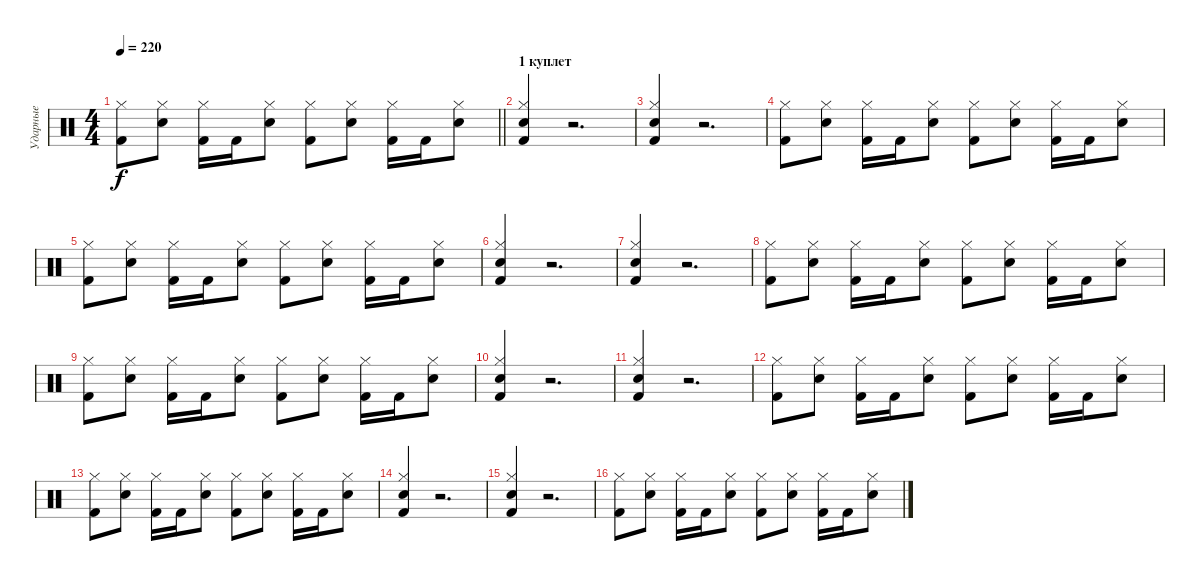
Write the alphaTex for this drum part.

\track ("Ударные" "Ударные") {instrument percussion}
\staff {score}
\articulation defaults
\ts (4 4)
\tempo 220
\clef neutral
\barLineRight lightlight
\ks c
("Kick (hit) 2" "Hi-Hat (closed)").8{dy f} ("Snare (hit) 2" "Hi-Hat (closed)").8 ("Kick (hit) 2" "Hi-Hat (closed)").16 "Kick (hit) 2".16 ("Snare (hit) 2" "Hi-Hat (closed)").8 ("Kick (hit) 2" "Hi-Hat (closed)").8 ("Snare (hit) 2" "Hi-Hat (closed)").8 ("Kick (hit) 2" "Hi-Hat (closed)").16 "Kick (hit) 2".16 ("Snare (hit) 2" "Hi-Hat (closed)").8 |
\section ("" "1 куплет")
("Kick (hit) 2" "Snare (hit) 2" "Hi-Hat (closed)").4 r.2{d} |
("Kick (hit) 2" "Snare (hit) 2" "Hi-Hat (closed)").4 r.2{d} |
("Kick (hit) 2" "Hi-Hat (closed)").8 ("Snare (hit) 2" "Hi-Hat (closed)").8 ("Kick (hit) 2" "Hi-Hat (closed)").16 "Kick (hit) 2".16 ("Snare (hit) 2" "Hi-Hat (closed)").8 ("Kick (hit) 2" "Hi-Hat (closed)").8 ("Snare (hit) 2" "Hi-Hat (closed)").8 ("Kick (hit) 2" "Hi-Hat (closed)").16 "Kick (hit) 2".16 ("Snare (hit) 2" "Hi-Hat (closed)").8 |
("Kick (hit) 2" "Hi-Hat (closed)").8 ("Snare (hit) 2" "Hi-Hat (closed)").8 ("Kick (hit) 2" "Hi-Hat (closed)").16 "Kick (hit) 2".16 ("Snare (hit) 2" "Hi-Hat (closed)").8 ("Kick (hit) 2" "Hi-Hat (closed)").8 ("Snare (hit) 2" "Hi-Hat (closed)").8 ("Kick (hit) 2" "Hi-Hat (closed)").16 "Kick (hit) 2".16 ("Snare (hit) 2" "Hi-Hat (closed)").8 |
("Kick (hit) 2" "Snare (hit) 2" "Hi-Hat (closed)").4 r.2{d} |
("Kick (hit) 2" "Snare (hit) 2" "Hi-Hat (closed)").4 r.2{d} |
("Kick (hit) 2" "Hi-Hat (closed)").8 ("Snare (hit) 2" "Hi-Hat (closed)").8 ("Kick (hit) 2" "Hi-Hat (closed)").16 "Kick (hit) 2".16 ("Snare (hit) 2" "Hi-Hat (closed)").8 ("Kick (hit) 2" "Hi-Hat (closed)").8 ("Snare (hit) 2" "Hi-Hat (closed)").8 ("Kick (hit) 2" "Hi-Hat (closed)").16 "Kick (hit) 2".16 ("Snare (hit) 2" "Hi-Hat (closed)").8 |
("Kick (hit) 2" "Hi-Hat (closed)").8 ("Snare (hit) 2" "Hi-Hat (closed)").8 ("Kick (hit) 2" "Hi-Hat (closed)").16 "Kick (hit) 2".16 ("Snare (hit) 2" "Hi-Hat (closed)").8 ("Kick (hit) 2" "Hi-Hat (closed)").8 ("Snare (hit) 2" "Hi-Hat (closed)").8 ("Kick (hit) 2" "Hi-Hat (closed)").16 "Kick (hit) 2".16 ("Snare (hit) 2" "Hi-Hat (closed)").8 |
("Kick (hit) 2" "Snare (hit) 2" "Hi-Hat (closed)").4 r.2{d} |
("Kick (hit) 2" "Snare (hit) 2" "Hi-Hat (closed)").4 r.2{d} |
("Kick (hit) 2" "Hi-Hat (closed)").8 ("Snare (hit) 2" "Hi-Hat (closed)").8 ("Kick (hit) 2" "Hi-Hat (closed)").16 "Kick (hit) 2".16 ("Snare (hit) 2" "Hi-Hat (closed)").8 ("Kick (hit) 2" "Hi-Hat (closed)").8 ("Snare (hit) 2" "Hi-Hat (closed)").8 ("Kick (hit) 2" "Hi-Hat (closed)").16 "Kick (hit) 2".16 ("Snare (hit) 2" "Hi-Hat (closed)").8 |
("Kick (hit) 2" "Hi-Hat (closed)").8 ("Snare (hit) 2" "Hi-Hat (closed)").8 ("Kick (hit) 2" "Hi-Hat (closed)").16 "Kick (hit) 2".16 ("Snare (hit) 2" "Hi-Hat (closed)").8 ("Kick (hit) 2" "Hi-Hat (closed)").8 ("Snare (hit) 2" "Hi-Hat (closed)").8 ("Kick (hit) 2" "Hi-Hat (closed)").16 "Kick (hit) 2".16 ("Snare (hit) 2" "Hi-Hat (closed)").8 |
("Kick (hit) 2" "Snare (hit) 2" "Hi-Hat (closed)").4 r.2{d} |
("Kick (hit) 2" "Snare (hit) 2" "Hi-Hat (closed)").4 r.2{d} |
("Kick (hit) 2" "Hi-Hat (closed)").8 ("Snare (hit) 2" "Hi-Hat (closed)").8 ("Kick (hit) 2" "Hi-Hat (closed)").16 "Kick (hit) 2".16 ("Snare (hit) 2" "Hi-Hat (closed)").8 ("Kick (hit) 2" "Hi-Hat (closed)").8 ("Snare (hit) 2" "Hi-Hat (closed)").8 ("Kick (hit) 2" "Hi-Hat (closed)").16 "Kick (hit) 2".16 ("Snare (hit) 2" "Hi-Hat (closed)").8
